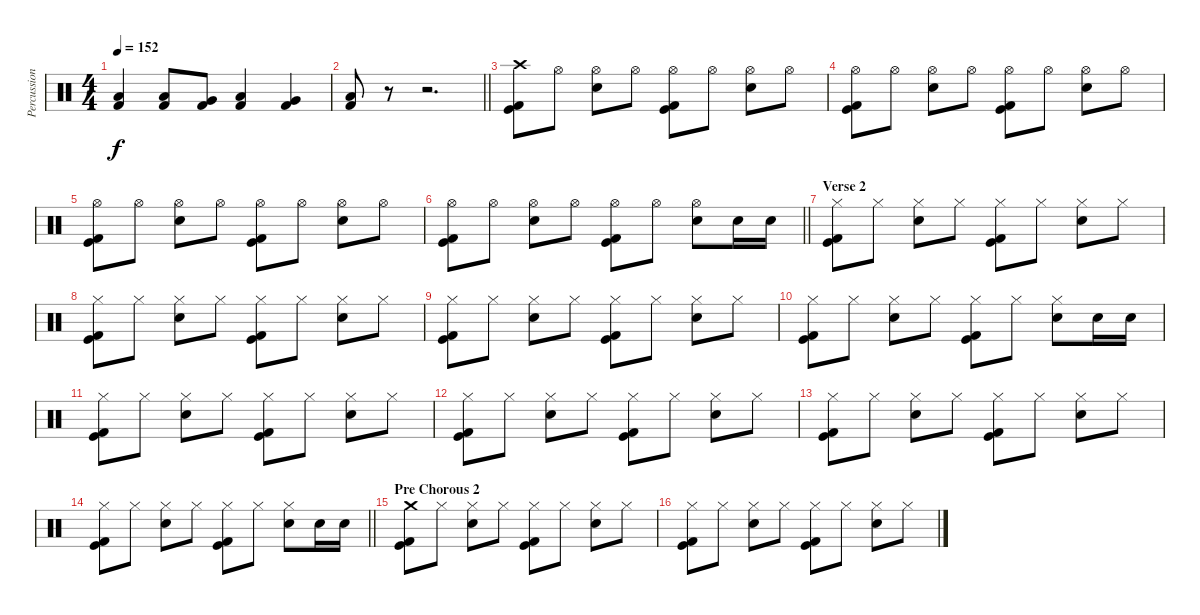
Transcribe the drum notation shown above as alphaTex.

\track ("Percussion" "Percussion") {instrument percussion}
\staff {score}
\articulation defaults
\ts (4 4)
\tempo 152
\clef neutral
\ks c
("Kick (hit) 2" "Low Tom (hit)").4{dy f} ("Kick (hit) 2" "Low Tom (hit)").8 ("Kick (hit) 2" "Very Low Tom (hit)").8 ("Kick (hit) 2" "Low Floor Tom (hit)").4 ("Kick (hit) 2" "Very Low Tom (hit)").4 |
\barLineRight lightlight
("Kick (hit) 2" "Low Tom (hit)").8 r.8 r.2{d} |
\section ("" "")
("Crash high (hit)" "Kick (hit)" "Kick (hit) 2").8 "Hi-Hat (open)".8 ("Hi-Hat (open)" "Electric Snare (hit)").8 "Hi-Hat (open)".8 ("Hi-Hat (open)" "Kick (hit)" "Kick (hit) 2").8 "Hi-Hat (open)".8 ("Hi-Hat (open)" "Electric Snare (hit)").8 "Hi-Hat (open)".8 |
("Hi-Hat (open)" "Kick (hit)" "Kick (hit) 2").8 "Hi-Hat (open)".8 ("Hi-Hat (open)" "Electric Snare (hit)").8 "Hi-Hat (open)".8 ("Hi-Hat (open)" "Kick (hit)" "Kick (hit) 2").8 "Hi-Hat (open)".8 ("Hi-Hat (open)" "Electric Snare (hit)").8 "Hi-Hat (open)".8 |
("Hi-Hat (open)" "Kick (hit)" "Kick (hit) 2").8 "Hi-Hat (open)".8 ("Hi-Hat (open)" "Electric Snare (hit)").8 "Hi-Hat (open)".8 ("Hi-Hat (open)" "Kick (hit)" "Kick (hit) 2").8 "Hi-Hat (open)".8 ("Hi-Hat (open)" "Electric Snare (hit)").8 "Hi-Hat (open)".8 |
\barLineRight lightlight
("Hi-Hat (open)" "Kick (hit)" "Kick (hit) 2").8 "Hi-Hat (open)".8 ("Hi-Hat (open)" "Electric Snare (hit)").8 "Hi-Hat (open)".8 ("Hi-Hat (open)" "Kick (hit)" "Kick (hit) 2").8 "Hi-Hat (open)".8 ("Hi-Hat (open)" "Electric Snare (hit)").8 "Electric Snare (hit)".16 "Electric Snare (hit)".16 |
\section ("" "Verse 2")
("Hi-Hat (closed)" "Kick (hit)" "Kick (hit) 2").8 "Hi-Hat (closed)".8 ("Hi-Hat (closed)" "Electric Snare (hit)").8 "Hi-Hat (closed)".8 ("Hi-Hat (closed)" "Kick (hit)" "Kick (hit) 2").8 "Hi-Hat (closed)".8 ("Hi-Hat (closed)" "Electric Snare (hit)").8 "Hi-Hat (closed)".8 |
("Hi-Hat (closed)" "Kick (hit)" "Kick (hit) 2").8 "Hi-Hat (closed)".8 ("Hi-Hat (closed)" "Electric Snare (hit)").8 "Hi-Hat (closed)".8 ("Hi-Hat (closed)" "Kick (hit)" "Kick (hit) 2").8 "Hi-Hat (closed)".8 ("Hi-Hat (closed)" "Electric Snare (hit)").8 "Hi-Hat (closed)".8 |
("Hi-Hat (closed)" "Kick (hit)" "Kick (hit) 2").8 "Hi-Hat (closed)".8 ("Hi-Hat (closed)" "Electric Snare (hit)").8 "Hi-Hat (closed)".8 ("Hi-Hat (closed)" "Kick (hit)" "Kick (hit) 2").8 "Hi-Hat (closed)".8 ("Hi-Hat (closed)" "Electric Snare (hit)").8 "Hi-Hat (closed)".8 |
("Hi-Hat (closed)" "Kick (hit)" "Kick (hit) 2").8 "Hi-Hat (closed)".8 ("Hi-Hat (closed)" "Electric Snare (hit)").8 "Hi-Hat (closed)".8 ("Hi-Hat (closed)" "Kick (hit)" "Kick (hit) 2").8 "Hi-Hat (closed)".8 ("Hi-Hat (closed)" "Electric Snare (hit)").8 "Electric Snare (hit)".16 "Electric Snare (hit)".16 |
("Hi-Hat (closed)" "Kick (hit)" "Kick (hit) 2").8 "Hi-Hat (closed)".8 ("Hi-Hat (closed)" "Electric Snare (hit)").8 "Hi-Hat (closed)".8 ("Hi-Hat (closed)" "Kick (hit)" "Kick (hit) 2").8 "Hi-Hat (closed)".8 ("Hi-Hat (closed)" "Electric Snare (hit)").8 "Hi-Hat (closed)".8 |
("Hi-Hat (closed)" "Kick (hit)" "Kick (hit) 2").8 "Hi-Hat (closed)".8 ("Hi-Hat (closed)" "Electric Snare (hit)").8 "Hi-Hat (closed)".8 ("Hi-Hat (closed)" "Kick (hit)" "Kick (hit) 2").8 "Hi-Hat (closed)".8 ("Hi-Hat (closed)" "Electric Snare (hit)").8 "Hi-Hat (closed)".8 |
("Hi-Hat (closed)" "Kick (hit)" "Kick (hit) 2").8 "Hi-Hat (closed)".8 ("Hi-Hat (closed)" "Electric Snare (hit)").8 "Hi-Hat (closed)".8 ("Hi-Hat (closed)" "Kick (hit)" "Kick (hit) 2").8 "Hi-Hat (closed)".8 ("Hi-Hat (closed)" "Electric Snare (hit)").8 "Hi-Hat (closed)".8 |
\barLineRight lightlight
("Hi-Hat (closed)" "Kick (hit)" "Kick (hit) 2").8 "Hi-Hat (closed)".8 ("Hi-Hat (closed)" "Electric Snare (hit)").8 "Hi-Hat (closed)".8 ("Hi-Hat (closed)" "Kick (hit)" "Kick (hit) 2").8 "Hi-Hat (closed)".8 ("Hi-Hat (closed)" "Electric Snare (hit)").8 "Electric Snare (hit)".16 "Electric Snare (hit)".16 |
\section ("" "Pre Chorous 2")
("Crash medium (hit)" "Kick (hit)" "Kick (hit) 2").8 "Hi-Hat (closed)".8 ("Hi-Hat (closed)" "Electric Snare (hit)").8 "Hi-Hat (closed)".8 ("Hi-Hat (closed)" "Kick (hit)" "Kick (hit) 2").8 "Hi-Hat (closed)".8 ("Hi-Hat (closed)" "Electric Snare (hit)").8 "Hi-Hat (closed)".8 |
("Hi-Hat (closed)" "Kick (hit)" "Kick (hit) 2").8 "Hi-Hat (closed)".8 ("Hi-Hat (closed)" "Electric Snare (hit)").8 "Hi-Hat (closed)".8 ("Hi-Hat (closed)" "Kick (hit)" "Kick (hit) 2").8 "Hi-Hat (closed)".8 ("Hi-Hat (closed)" "Electric Snare (hit)").8 "Hi-Hat (closed)".8
